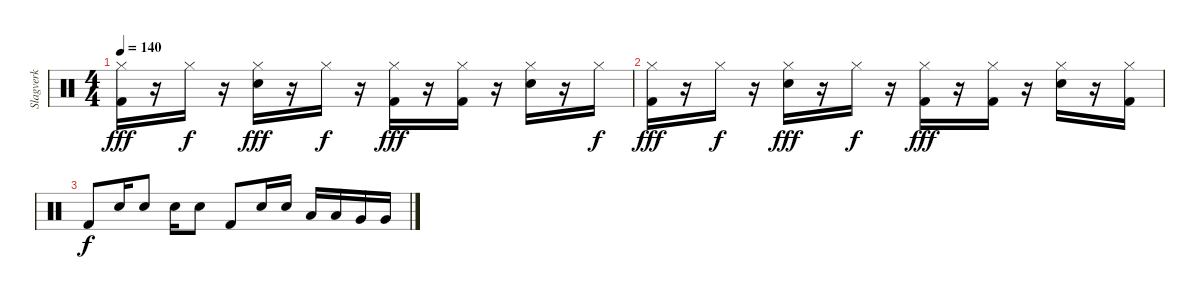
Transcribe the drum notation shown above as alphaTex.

\track ("Slagverk" "Slagverk") {instrument percussion}
\staff {score}
\articulation defaults
\ts (4 4)
\tempo 140
\clef neutral
\ks c
("Hi-Hat (closed)" "Kick (hit) 2").16{dy fff} r.16 "Hi-Hat (closed)".16{dy f} r.16 ("Hi-Hat (closed)" "Electric Snare (hit)").16{dy fff} r.16 "Hi-Hat (closed)".16{dy f} r.16 ("Hi-Hat (closed)" "Kick (hit) 2").16{dy fff} r.16 ("Hi-Hat (closed)" "Kick (hit) 2").16 r.16 ("Hi-Hat (closed)" "Electric Snare (hit)").16 r.16 "Hi-Hat (closed)".16{dy f} |
("Hi-Hat (closed)" "Kick (hit) 2").16{dy fff} r.16 "Hi-Hat (closed)".16{dy f} r.16 ("Hi-Hat (closed)" "Electric Snare (hit)").16{dy fff} r.16 "Hi-Hat (closed)".16{dy f} r.16 ("Hi-Hat (closed)" "Kick (hit) 2").16{dy fff} r.16 ("Hi-Hat (closed)" "Kick (hit) 2").16 r.16 ("Hi-Hat (closed)" "Electric Snare (hit)").16 r.16 ("Hi-Hat (closed)" "Kick (hit) 2").16 |
"Kick (hit) 2".8{dy f} "Electric Snare (hit)".16 "Electric Snare (hit)".8 "Electric Snare (hit)".16 "Electric Snare (hit)".8 "Kick (hit) 2".8 "Electric Snare (hit)".16 "Electric Snare (hit)".16 "Low Tom (hit)".16 "Low Tom (hit)".16 "Very Low Tom (hit)".16 "Very Low Tom (hit)".16
